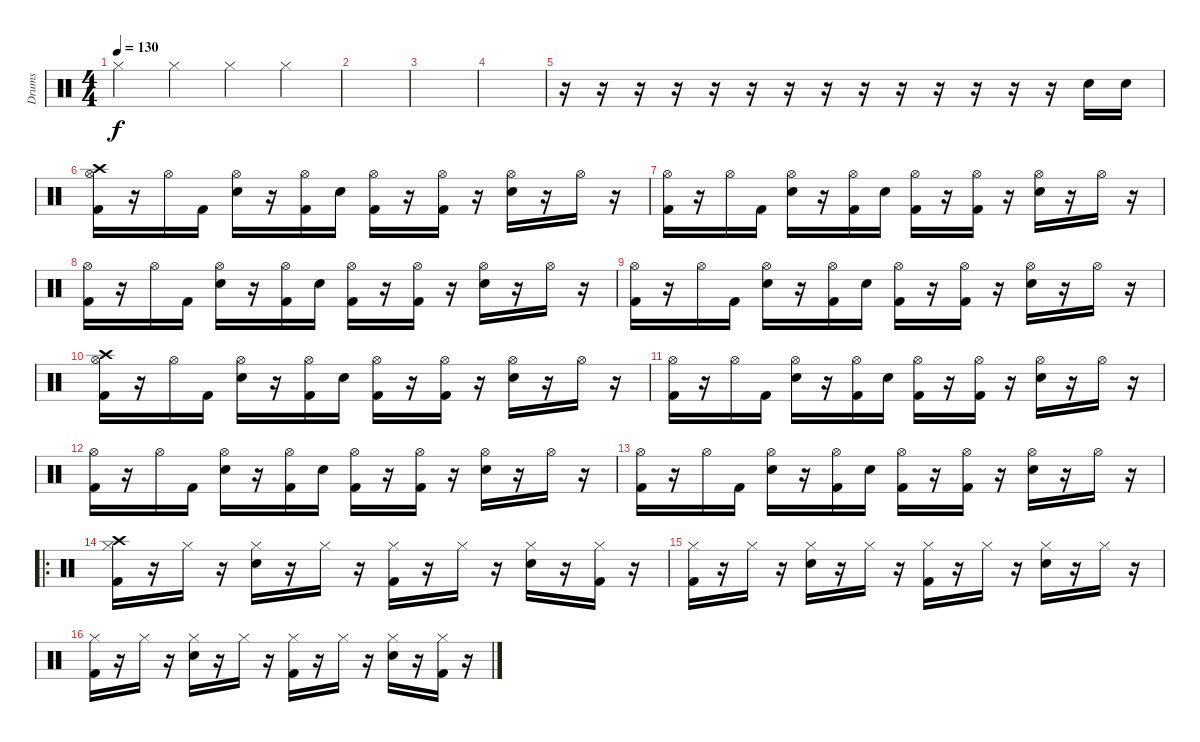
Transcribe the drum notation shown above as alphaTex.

\track ("Drums" "Drums") {instrument percussion}
\staff {score}
\articulation defaults
\ts (4 4)
\tempo 130
\clef neutral
\ks c "Hi-Hat (closed)".4{dy f} "Hi-Hat (closed)".4 "Hi-Hat (closed)".4 "Hi-Hat (closed)".4
|
|
|
|
r.16 r.16 r.16 r.16 r.16 r.16 r.16 r.16 r.16 r.16 r.16 r.16 r.16 r.16 "Electric Snare (hit)".16 "Electric Snare (hit)".16 |
("Kick (hit) 2" "Crash high (hit)" "Hi-Hat (open)").16 r.16 "Hi-Hat (open)".16 "Kick (hit) 2".16 ("Electric Snare (hit)" "Hi-Hat (open)").16 r.16 ("Kick (hit) 2" "Hi-Hat (open)").16 "Electric Snare (hit)".16 ("Kick (hit) 2" "Hi-Hat (open)").16 r.16 ("Kick (hit) 2" "Hi-Hat (open)").16 r.16 ("Electric Snare (hit)" "Hi-Hat (open)").16 r.16 "Hi-Hat (open)".16 r.16 |
("Kick (hit) 2" "Hi-Hat (open)").16 r.16 "Hi-Hat (open)".16 "Kick (hit) 2".16 ("Electric Snare (hit)" "Hi-Hat (open)").16 r.16 ("Kick (hit) 2" "Hi-Hat (open)").16 "Electric Snare (hit)".16 ("Kick (hit) 2" "Hi-Hat (open)").16 r.16 ("Kick (hit) 2" "Hi-Hat (open)").16 r.16 ("Electric Snare (hit)" "Hi-Hat (open)").16 r.16 "Hi-Hat (open)".16 r.16 |
("Kick (hit) 2" "Hi-Hat (open)").16 r.16 "Hi-Hat (open)".16 "Kick (hit) 2".16 ("Electric Snare (hit)" "Hi-Hat (open)").16 r.16 ("Kick (hit) 2" "Hi-Hat (open)").16 "Electric Snare (hit)".16 ("Kick (hit) 2" "Hi-Hat (open)").16 r.16 ("Kick (hit) 2" "Hi-Hat (open)").16 r.16 ("Electric Snare (hit)" "Hi-Hat (open)").16 r.16 "Hi-Hat (open)".16 r.16 |
("Kick (hit) 2" "Hi-Hat (open)").16 r.16 "Hi-Hat (open)".16 "Kick (hit) 2".16 ("Electric Snare (hit)" "Hi-Hat (open)").16 r.16 ("Kick (hit) 2" "Hi-Hat (open)").16 "Electric Snare (hit)".16 ("Kick (hit) 2" "Hi-Hat (open)").16 r.16 ("Kick (hit) 2" "Hi-Hat (open)").16 r.16 ("Electric Snare (hit)" "Hi-Hat (open)").16 r.16 "Hi-Hat (open)".16 r.16 |
("Kick (hit) 2" "Crash high (hit)" "Hi-Hat (open)").16 r.16 "Hi-Hat (open)".16 "Kick (hit) 2".16 ("Electric Snare (hit)" "Hi-Hat (open)").16 r.16 ("Kick (hit) 2" "Hi-Hat (open)").16 "Electric Snare (hit)".16 ("Kick (hit) 2" "Hi-Hat (open)").16 r.16 ("Kick (hit) 2" "Hi-Hat (open)").16 r.16 ("Electric Snare (hit)" "Hi-Hat (open)").16 r.16 "Hi-Hat (open)".16 r.16 |
("Kick (hit) 2" "Hi-Hat (open)").16 r.16 "Hi-Hat (open)".16 "Kick (hit) 2".16 ("Electric Snare (hit)" "Hi-Hat (open)").16 r.16 ("Kick (hit) 2" "Hi-Hat (open)").16 "Electric Snare (hit)".16 ("Kick (hit) 2" "Hi-Hat (open)").16 r.16 ("Kick (hit) 2" "Hi-Hat (open)").16 r.16 ("Electric Snare (hit)" "Hi-Hat (open)").16 r.16 "Hi-Hat (open)".16 r.16 |
("Kick (hit) 2" "Hi-Hat (open)").16 r.16 "Hi-Hat (open)".16 "Kick (hit) 2".16 ("Electric Snare (hit)" "Hi-Hat (open)").16 r.16 ("Kick (hit) 2" "Hi-Hat (open)").16 "Electric Snare (hit)".16 ("Kick (hit) 2" "Hi-Hat (open)").16 r.16 ("Kick (hit) 2" "Hi-Hat (open)").16 r.16 ("Electric Snare (hit)" "Hi-Hat (open)").16 r.16 "Hi-Hat (open)".16 r.16 |
("Kick (hit) 2" "Hi-Hat (open)").16 r.16 "Hi-Hat (open)".16 "Kick (hit) 2".16 ("Electric Snare (hit)" "Hi-Hat (open)").16 r.16 ("Kick (hit) 2" "Hi-Hat (open)").16 "Electric Snare (hit)".16 ("Kick (hit) 2" "Hi-Hat (open)").16 r.16 ("Kick (hit) 2" "Hi-Hat (open)").16 r.16 ("Electric Snare (hit)" "Hi-Hat (open)").16 r.16 "Hi-Hat (open)".16 r.16 |
\ro
("Kick (hit) 2" "Crash high (hit)" "Hi-Hat (closed)").16 r.16 "Hi-Hat (closed)".16 r.16 ("Electric Snare (hit)" "Hi-Hat (closed)").16 r.16 "Hi-Hat (closed)".16 r.16 ("Kick (hit) 2" "Hi-Hat (closed)").16 r.16 "Hi-Hat (closed)".16 r.16 ("Electric Snare (hit)" "Hi-Hat (closed)").16 r.16 ("Kick (hit) 2" "Hi-Hat (closed)").16 r.16 |
("Kick (hit) 2" "Hi-Hat (closed)").16 r.16 "Hi-Hat (closed)".16 r.16 ("Electric Snare (hit)" "Hi-Hat (closed)").16 r.16 "Hi-Hat (closed)".16 r.16 ("Kick (hit) 2" "Hi-Hat (closed)").16 r.16 "Hi-Hat (closed)".16 r.16 ("Electric Snare (hit)" "Hi-Hat (closed)").16 r.16 "Hi-Hat (closed)".16 r.16 |
("Kick (hit) 2" "Hi-Hat (closed)").16 r.16 "Hi-Hat (closed)".16 r.16 ("Electric Snare (hit)" "Hi-Hat (closed)").16 r.16 "Hi-Hat (closed)".16 r.16 ("Kick (hit) 2" "Hi-Hat (closed)").16 r.16 "Hi-Hat (closed)".16 r.16 ("Electric Snare (hit)" "Hi-Hat (closed)").16 r.16 ("Kick (hit) 2" "Hi-Hat (closed)").16 r.16
